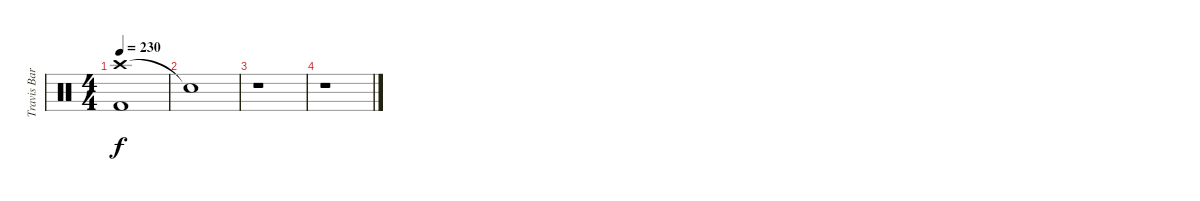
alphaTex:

\track ("Travis Barker" "Travis Bar") {instrument percussion}
\staff {score}
\articulation defaults
\ts (4 4)
\tempo 230
\clef neutral
\ks c
("Crash high (hit)" "Kick (hit) 2").1{dy f} |
"Snare (hit)"{t}.1 |
r.1 |
r.1
